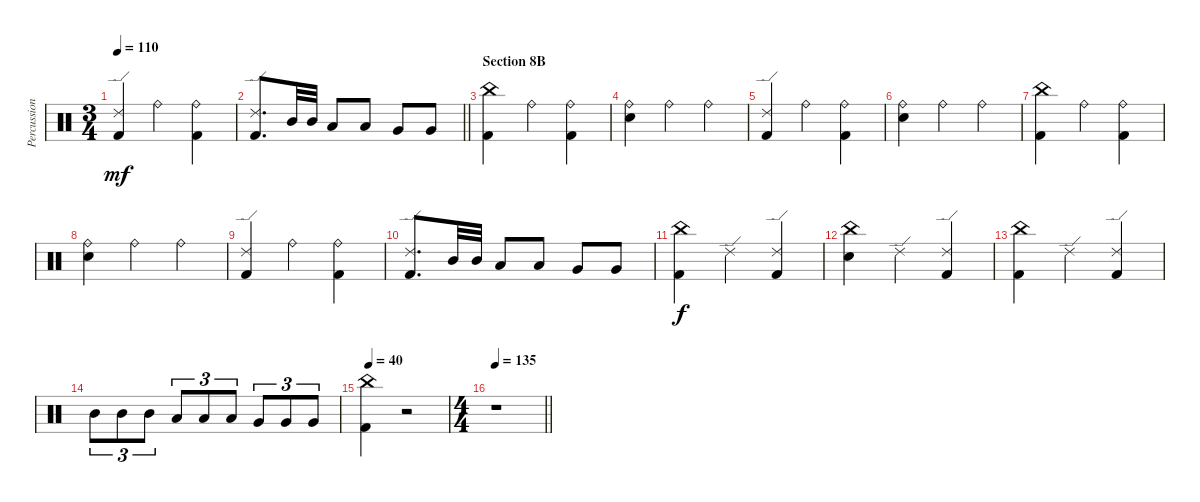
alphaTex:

\track ("Percussion" "Percussion") {instrument percussion}
\staff {score}
\articulation defaults
\ts (3 4)
\tempo 110
\clef neutral
\ks c
("Ride (edge) 2" "Kick (hit) 2").4{dy mf} "Ride (bell)".4 ("Ride (bell)" "Kick (hit) 2").4 |
\barLineRight lightlight
("Ride (edge) 2" "Kick (hit) 2").8{d} "Mid Tom (hit)".32 "Mid Tom (hit)".32 "Low Tom (hit)".8 "Low Tom (hit)".8 "Very Low Tom (hit)".8 "Very Low Tom (hit)".8 |
\section ("" "Section 8B")
("China (hit)" "Kick (hit) 2").4 "Ride (bell)".4 ("Ride (bell)" "Kick (hit) 2").4 |
("Ride (bell)" "Electric Snare (hit)").4 "Ride (bell)".4 "Ride (bell)".4 |
("Ride (edge) 2" "Kick (hit) 2").4 "Ride (bell)".4 ("Ride (bell)" "Kick (hit) 2").4 |
("Ride (bell)" "Electric Snare (hit)").4 "Ride (bell)".4 "Ride (bell)".4 |
("China (hit)" "Kick (hit) 2").4 "Ride (bell)".4 ("Ride (bell)" "Kick (hit) 2").4 |
("Ride (bell)" "Electric Snare (hit)").4 "Ride (bell)".4 "Ride (bell)".4 |
("Ride (edge) 2" "Kick (hit) 2").4 "Ride (bell)".4 ("Ride (bell)" "Kick (hit) 2").4 |
("Ride (edge) 2" "Kick (hit) 2").8{d} "Mid Tom (hit)".32 "Mid Tom (hit)".32 "Low Tom (hit)".8 "Low Tom (hit)".8 "Very Low Tom (hit)".8 "Very Low Tom (hit)".8 |
("China (hit)" "Kick (hit) 2").4{dy f} "Ride (edge) 2".4 ("Ride (edge) 2" "Kick (hit) 2").4 |
("China (hit)" "Electric Snare (hit)").4 "Ride (edge) 2".4 ("Ride (edge) 2" "Kick (hit) 2").4 |
("China (hit)" "Kick (hit) 2").4 "Ride (edge) 2".4 ("Ride (edge) 2" "Kick (hit) 2").4 |
"Mid Tom (hit)".8{tu (3 2)} "Mid Tom (hit)".8{tu (3 2)} "Mid Tom (hit)".8{tu (3 2)} "Low Tom (hit)".8{tu (3 2)} "Low Tom (hit)".8{tu (3 2)} "Low Tom (hit)".8{tu (3 2)} "Very Low Tom (hit)".8{tu (3 2)} "Very Low Tom (hit)".8{tu (3 2)} "Very Low Tom (hit)".8{tu (3 2)} |
\tempo 40
("China (hit)" "Kick (hit) 2").4 r.2 |
\ts (4 4)
\tempo 135
\barLineRight lightlight
r.1
